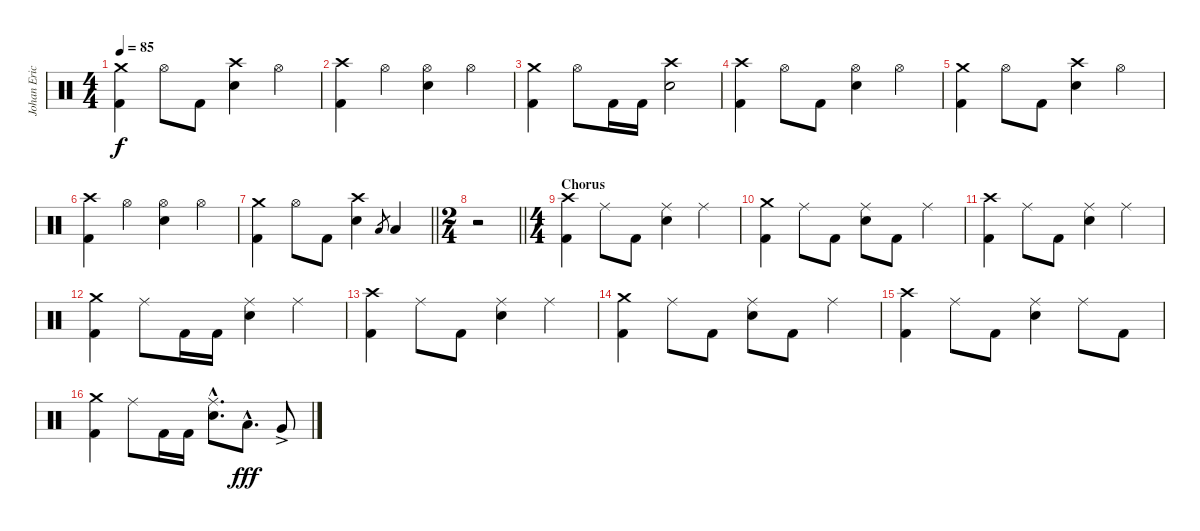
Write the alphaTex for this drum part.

\track ("Johan Ericson" "Johan Eric") {instrument percussion}
\staff {score}
\articulation defaults
\ts (4 4)
\tempo 85
\clef neutral
\ks c
("Crash medium (hit)" "Kick (hit) 2").4{dy f} "Hi-Hat (open)".8 "Kick (hit) 2".8 ("Crash high (hit)" "Snare (hit) 2").4 "Hi-Hat (open)".4 |
("Crash high (hit)" "Kick (hit) 2").4 "Hi-Hat (open)".4 ("Hi-Hat (open)" "Snare (hit) 2").4 "Hi-Hat (open)".4 |
("Crash medium (hit)" "Kick (hit) 2").4 "Hi-Hat (open)".8 "Kick (hit) 2".16 "Kick (hit) 2".16 ("Crash high (hit)" "Snare (hit) 2").2 |
("Crash high (hit)" "Kick (hit) 2").4 "Hi-Hat (open)".8 "Kick (hit) 2".8 ("Hi-Hat (open)" "Snare (hit) 2").4 "Hi-Hat (open)".4 |
("Crash medium (hit)" "Kick (hit) 2").4 "Hi-Hat (open)".8 "Kick (hit) 2".8 ("Crash high (hit)" "Snare (hit) 2").4 "Hi-Hat (open)".4 |
("Crash high (hit)" "Kick (hit) 2").4 "Hi-Hat (open)".4 ("Hi-Hat (open)" "Snare (hit) 2").4 "Hi-Hat (open)".4 |
\barLineRight lightlight
("Crash medium (hit)" "Kick (hit) 2").4 "Hi-Hat (open)".8 "Kick (hit) 2".8 ("Crash high (hit)" "Snare (hit) 2").4 "Low Tom (hit)".8{gr} "Low Tom (hit)".4 |
\ts (2 4)
\section ("" "")
\barLineRight lightlight
r.2 |
\ts (4 4)
\section ("" "Chorus")
("Crash high (hit)" "Kick (hit) 2").4 "Ride (middle)".8 "Kick (hit) 2".8 ("Ride (middle)" "Snare (hit) 2").4 "Ride (middle)".4 |
("Crash medium (hit)" "Kick (hit) 2").4 "Ride (middle)".8 "Kick (hit) 2".8 ("Ride (middle)" "Snare (hit) 2").8 "Kick (hit) 2".8 "Ride (middle)".4 |
("Crash high (hit)" "Kick (hit) 2").4 "Ride (middle)".8 "Kick (hit) 2".8 ("Ride (middle)" "Snare (hit) 2").4 "Ride (middle)".4 |
("Crash medium (hit)" "Kick (hit) 2").4 "Ride (middle)".8 "Kick (hit) 2".16 "Kick (hit) 2".16 ("Ride (middle)" "Snare (hit) 2").4 "Ride (middle)".4 |
("Crash high (hit)" "Kick (hit) 2").4 "Ride (middle)".8 "Kick (hit) 2".8 ("Ride (middle)" "Snare (hit) 2").4 "Ride (middle)".4 |
("Crash medium (hit)" "Kick (hit) 2").4 "Ride (middle)".8 "Kick (hit) 2".8 ("Ride (middle)" "Snare (hit) 2").8 "Kick (hit) 2".8 "Ride (middle)".4 |
("Crash high (hit)" "Kick (hit) 2").4 "Ride (middle)".8 "Kick (hit) 2".8 ("Ride (middle)" "Snare (hit) 2").4 "Ride (middle)".8 "Kick (hit) 2".8 |
("Crash medium (hit)" "Kick (hit) 2").4 "Ride (middle)".8 "Kick (hit) 2".16 "Kick (hit) 2".16 ("Ride (middle)"{hac} "Snare (hit) 2"{hac}).8{d} "Low Tom (hit)"{hac}.8{d dy fff} "Very Low Tom (hit)"{ac}.8
